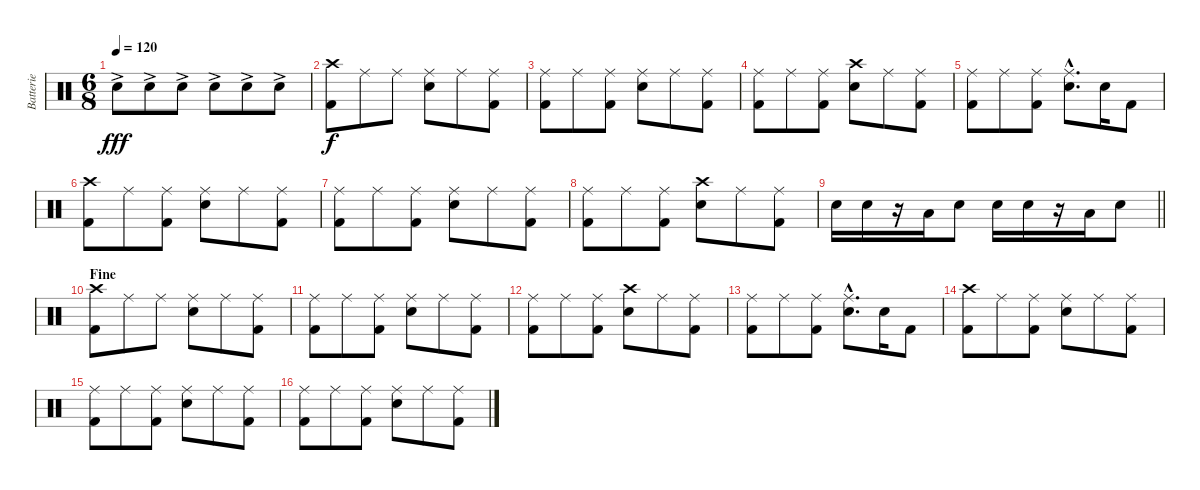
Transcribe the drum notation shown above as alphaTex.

\track ("Batterie" "Batterie") {instrument percussion}
\staff {score}
\articulation defaults
\ts (6 8)
\tempo 120
\clef neutral
\ks c "Snare (hit) 2"{ac}.8{dy fff} "Snare (hit) 2"{ac}.8 "Snare (hit) 2"{ac}.8 "Snare (hit) 2"{ac}.8 "Snare (hit) 2"{ac}.8 "Snare (hit) 2"{ac}.8
|
("Crash high (hit)" "Kick (hit) 2").8{dy f} "Ride (middle)".8 "Ride (middle)".8 ("Ride (middle)" "Snare (hit) 2").8 "Ride (middle)".8 ("Ride (middle)" "Kick (hit) 2").8 |
("Ride (middle)" "Kick (hit) 2").8 "Ride (middle)".8 ("Ride (middle)" "Kick (hit) 2").8 ("Ride (middle)" "Snare (hit) 2").8 "Ride (middle)".8 ("Ride (middle)" "Kick (hit) 2").8 |
("Ride (middle)" "Kick (hit) 2").8 "Ride (middle)".8 ("Ride (middle)" "Kick (hit) 2").8 ("Crash high (hit)" "Snare (hit) 2").8 "Ride (middle)".8 ("Ride (middle)" "Kick (hit) 2").8 |
("Ride (middle)" "Kick (hit) 2").8 "Ride (middle)".8 ("Ride (middle)" "Kick (hit) 2").8 ("Ride (middle)"{hac} "Snare (hit) 2"{hac}).8{d} "Snare (hit) 2".16 "Kick (hit) 2".8 |
("Crash high (hit)" "Kick (hit) 2").8 "Ride (middle)".8 ("Ride (middle)" "Kick (hit) 2").8 ("Ride (middle)" "Snare (hit) 2").8 "Ride (middle)".8 ("Ride (middle)" "Kick (hit) 2").8 |
("Ride (middle)" "Kick (hit) 2").8 "Ride (middle)".8 ("Ride (middle)" "Kick (hit) 2").8 ("Ride (middle)" "Snare (hit) 2").8 "Ride (middle)".8 ("Ride (middle)" "Kick (hit) 2").8 |
("Ride (middle)" "Kick (hit) 2").8 "Ride (middle)".8 ("Ride (middle)" "Kick (hit) 2").8 ("Crash high (hit)" "Snare (hit) 2").8 "Ride (middle)".8 ("Ride (middle)" "Kick (hit) 2").8 |
\barLineRight lightlight "Snare (hit) 2".16 "Snare (hit) 2".16
r.16 "Low Tom (hit)".16 "Snare (hit) 2".8 "Snare (hit) 2".16 "Snare (hit) 2".16 r.16 "Low Floor Tom (hit)".16 "Snare (hit) 2".8 |
\section ("" "Fine")
("Crash high (hit)" "Kick (hit) 2").8 "Ride (middle)".8 "Ride (middle)".8 ("Ride (middle)" "Snare (hit) 2").8 "Ride (middle)".8 ("Ride (middle)" "Kick (hit) 2").8 |
("Ride (middle)" "Kick (hit) 2").8 "Ride (middle)".8 ("Ride (middle)" "Kick (hit) 2").8 ("Ride (middle)" "Snare (hit) 2").8 "Ride (middle)".8 ("Ride (middle)" "Kick (hit) 2").8 |
("Ride (middle)" "Kick (hit) 2").8 "Ride (middle)".8 ("Ride (middle)" "Kick (hit) 2").8 ("Crash high (hit)" "Snare (hit) 2").8 "Ride (middle)".8 ("Ride (middle)" "Kick (hit) 2").8 |
("Ride (middle)" "Kick (hit) 2").8 "Ride (middle)".8 ("Ride (middle)" "Kick (hit) 2").8 ("Ride (middle)"{hac} "Snare (hit) 2"{hac}).8{d} "Snare (hit) 2".16 "Kick (hit) 2".8 |
("Crash high (hit)" "Kick (hit) 2").8 "Ride (middle)".8 ("Ride (middle)" "Kick (hit) 2").8 ("Ride (middle)" "Snare (hit) 2").8 "Ride (middle)".8 ("Ride (middle)" "Kick (hit) 2").8 |
("Ride (middle)" "Kick (hit) 2").8 "Ride (middle)".8 ("Ride (middle)" "Kick (hit) 2").8 ("Ride (middle)" "Snare (hit) 2").8 "Ride (middle)".8 ("Ride (middle)" "Kick (hit) 2").8 |
("Ride (middle)" "Kick (hit) 2").8 "Ride (middle)".8 ("Ride (middle)" "Kick (hit) 2").8 ("Ride (middle)" "Snare (hit) 2").8 "Ride (middle)".8 ("Ride (middle)" "Kick (hit) 2").8
